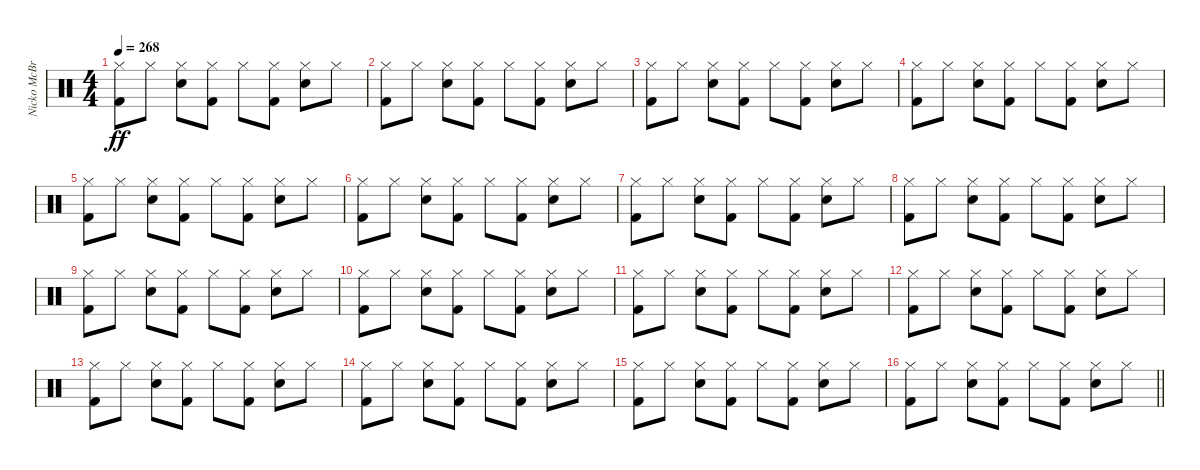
\track ("Nicko McBrain" "Nicko McBr") {instrument percussion}
\staff {score}
\articulation defaults
\ts (4 4)
\tempo 268
\clef neutral
\ks c
("Kick (hit) 2" "Hi-Hat (closed)").8{dy ff} "Hi-Hat (closed)".8 ("Snare (hit) 2" "Hi-Hat (closed)").8 ("Kick (hit) 2" "Hi-Hat (closed)").8 "Hi-Hat (closed)".8 ("Kick (hit) 2" "Hi-Hat (closed)").8 ("Snare (hit) 2" "Hi-Hat (closed)").8 "Hi-Hat (closed)".8 |
("Kick (hit) 2" "Hi-Hat (closed)").8 "Hi-Hat (closed)".8 ("Snare (hit) 2" "Hi-Hat (closed)").8 ("Kick (hit) 2" "Hi-Hat (closed)").8 "Hi-Hat (closed)".8 ("Kick (hit) 2" "Hi-Hat (closed)").8 ("Snare (hit) 2" "Hi-Hat (closed)").8 "Hi-Hat (closed)".8 |
("Kick (hit) 2" "Hi-Hat (closed)").8 "Hi-Hat (closed)".8 ("Snare (hit) 2" "Hi-Hat (closed)").8 ("Kick (hit) 2" "Hi-Hat (closed)").8 "Hi-Hat (closed)".8 ("Kick (hit) 2" "Hi-Hat (closed)").8 ("Snare (hit) 2" "Hi-Hat (closed)").8 "Hi-Hat (closed)".8 |
("Kick (hit) 2" "Hi-Hat (closed)").8 "Hi-Hat (closed)".8 ("Snare (hit) 2" "Hi-Hat (closed)").8 ("Kick (hit) 2" "Hi-Hat (closed)").8 "Hi-Hat (closed)".8 ("Kick (hit) 2" "Hi-Hat (closed)").8 ("Snare (hit) 2" "Hi-Hat (closed)").8 "Hi-Hat (closed)".8 |
("Kick (hit) 2" "Hi-Hat (closed)").8 "Hi-Hat (closed)".8 ("Snare (hit) 2" "Hi-Hat (closed)").8 ("Kick (hit) 2" "Hi-Hat (closed)").8 "Hi-Hat (closed)".8 ("Kick (hit) 2" "Hi-Hat (closed)").8 ("Snare (hit) 2" "Hi-Hat (closed)").8 "Hi-Hat (closed)".8 |
("Kick (hit) 2" "Hi-Hat (closed)").8 "Hi-Hat (closed)".8 ("Snare (hit) 2" "Hi-Hat (closed)").8 ("Kick (hit) 2" "Hi-Hat (closed)").8 "Hi-Hat (closed)".8 ("Kick (hit) 2" "Hi-Hat (closed)").8 ("Snare (hit) 2" "Hi-Hat (closed)").8 "Hi-Hat (closed)".8 |
("Kick (hit) 2" "Hi-Hat (closed)").8 "Hi-Hat (closed)".8 ("Snare (hit) 2" "Hi-Hat (closed)").8 ("Kick (hit) 2" "Hi-Hat (closed)").8 "Hi-Hat (closed)".8 ("Kick (hit) 2" "Hi-Hat (closed)").8 ("Snare (hit) 2" "Hi-Hat (closed)").8 "Hi-Hat (closed)".8 |
("Kick (hit) 2" "Hi-Hat (closed)").8 "Hi-Hat (closed)".8 ("Snare (hit) 2" "Hi-Hat (closed)").8 ("Kick (hit) 2" "Hi-Hat (closed)").8 "Hi-Hat (closed)".8 ("Kick (hit) 2" "Hi-Hat (closed)").8 ("Snare (hit) 2" "Hi-Hat (closed)").8 "Hi-Hat (closed)".8 |
("Kick (hit) 2" "Hi-Hat (closed)").8 "Hi-Hat (closed)".8 ("Snare (hit) 2" "Hi-Hat (closed)").8 ("Kick (hit) 2" "Hi-Hat (closed)").8 "Hi-Hat (closed)".8 ("Kick (hit) 2" "Hi-Hat (closed)").8 ("Snare (hit) 2" "Hi-Hat (closed)").8 "Hi-Hat (closed)".8 |
("Kick (hit) 2" "Hi-Hat (closed)").8 "Hi-Hat (closed)".8 ("Snare (hit) 2" "Hi-Hat (closed)").8 ("Kick (hit) 2" "Hi-Hat (closed)").8 "Hi-Hat (closed)".8 ("Kick (hit) 2" "Hi-Hat (closed)").8 ("Snare (hit) 2" "Hi-Hat (closed)").8 "Hi-Hat (closed)".8 |
("Kick (hit) 2" "Hi-Hat (closed)").8 "Hi-Hat (closed)".8 ("Snare (hit) 2" "Hi-Hat (closed)").8 ("Kick (hit) 2" "Hi-Hat (closed)").8 "Hi-Hat (closed)".8 ("Kick (hit) 2" "Hi-Hat (closed)").8 ("Snare (hit) 2" "Hi-Hat (closed)").8 "Hi-Hat (closed)".8 |
("Kick (hit) 2" "Hi-Hat (closed)").8 "Hi-Hat (closed)".8 ("Snare (hit) 2" "Hi-Hat (closed)").8 ("Kick (hit) 2" "Hi-Hat (closed)").8 "Hi-Hat (closed)".8 ("Kick (hit) 2" "Hi-Hat (closed)").8 ("Snare (hit) 2" "Hi-Hat (closed)").8 "Hi-Hat (closed)".8 |
("Kick (hit) 2" "Hi-Hat (closed)").8 "Hi-Hat (closed)".8 ("Snare (hit) 2" "Hi-Hat (closed)").8 ("Kick (hit) 2" "Hi-Hat (closed)").8 "Hi-Hat (closed)".8 ("Kick (hit) 2" "Hi-Hat (closed)").8 ("Snare (hit) 2" "Hi-Hat (closed)").8 "Hi-Hat (closed)".8 |
("Kick (hit) 2" "Hi-Hat (closed)").8 "Hi-Hat (closed)".8 ("Snare (hit) 2" "Hi-Hat (closed)").8 ("Kick (hit) 2" "Hi-Hat (closed)").8 "Hi-Hat (closed)".8 ("Kick (hit) 2" "Hi-Hat (closed)").8 ("Snare (hit) 2" "Hi-Hat (closed)").8 "Hi-Hat (closed)".8 |
("Kick (hit) 2" "Hi-Hat (closed)").8 "Hi-Hat (closed)".8 ("Snare (hit) 2" "Hi-Hat (closed)").8 ("Kick (hit) 2" "Hi-Hat (closed)").8 "Hi-Hat (closed)".8 ("Kick (hit) 2" "Hi-Hat (closed)").8 ("Snare (hit) 2" "Hi-Hat (closed)").8 "Hi-Hat (closed)".8 |
\barLineRight lightlight
("Kick (hit) 2" "Hi-Hat (closed)").8 "Hi-Hat (closed)".8 ("Snare (hit) 2" "Hi-Hat (closed)").8 ("Kick (hit) 2" "Hi-Hat (closed)").8 "Hi-Hat (closed)".8 ("Kick (hit) 2" "Hi-Hat (closed)").8 ("Snare (hit) 2" "Hi-Hat (closed)").8 "Hi-Hat (closed)".8
